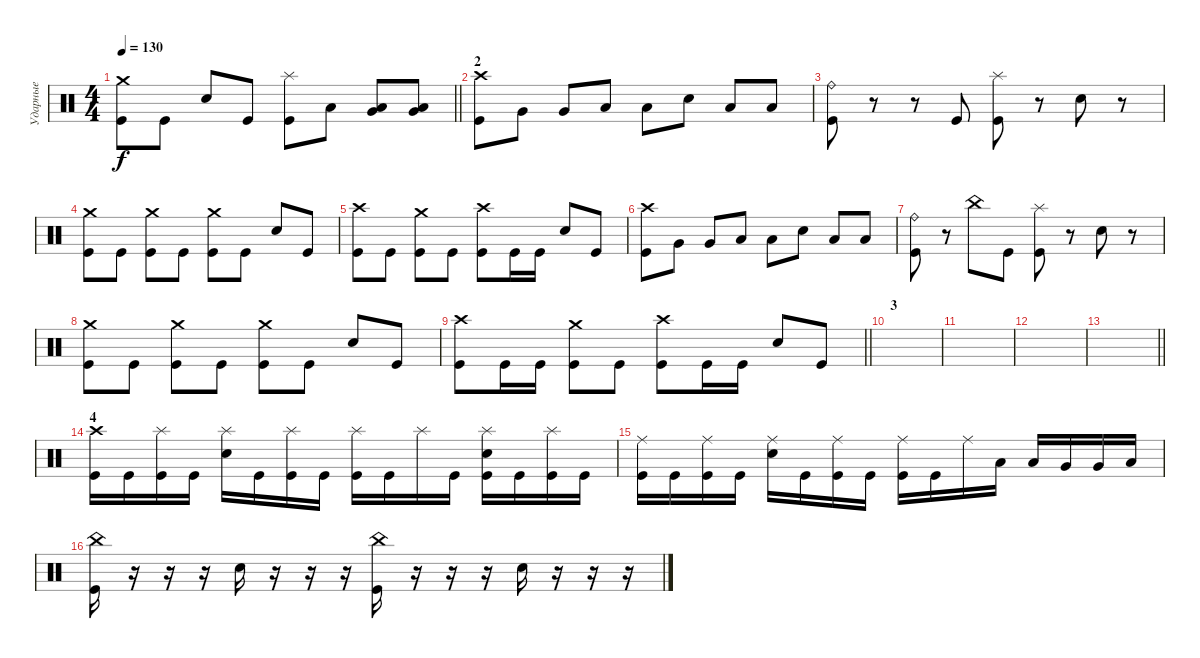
\track ("Ударные" "Ударные") {instrument percussion}
\staff {score}
\articulation defaults
\ts (4 4)
\tempo 130
\clef neutral
\barLineRight lightlight
\ks c
("Crash medium (hit)" "Kick (hit)").8{dy f} "Kick (hit)".8 "Electric Snare (hit)".8 "Kick (hit)".8 ("Splash (hit)" "Kick (hit)").8 "Low Tom (hit)".8 ("Very Low Tom (hit)" "Low Floor Tom (hit)").8 ("Very Low Tom (hit)" "Low Floor Tom (hit)").8 |
\section ("" "2")
("Crash high (hit)" "Kick (hit)").8 "Very Low Tom (hit)".8 "Very Low Tom (hit)".8 "Low Tom (hit)".8 "Low Tom (hit)".8 "Electric Snare (hit)".8 "Low Tom (hit)".8 "Low Tom (hit)".8 |
("Ride (bell)" "Kick (hit)").8 r.8 r.8 "Kick (hit)".8 ("Splash (hit)" "Kick (hit)").8 r.8 "Electric Snare (hit)".8 r.8 |
("Crash medium (hit)" "Kick (hit)").8 "Kick (hit)".8 ("Crash medium (hit)" "Kick (hit)").8 "Kick (hit)".8 ("Crash medium (hit)" "Kick (hit)").8 "Kick (hit)".8 "Electric Snare (hit)".8 "Kick (hit)".8 |
("Crash high (hit)" "Kick (hit)").8 "Kick (hit)".8 ("Crash medium (hit)" "Kick (hit)").8 "Kick (hit)".8 ("Crash high (hit)" "Kick (hit)").8 "Kick (hit)".16 "Kick (hit)".16 "Electric Snare (hit)".8 "Kick (hit)".8 |
("Crash high (hit)" "Kick (hit)").8 "Very Low Tom (hit)".8 "Very Low Tom (hit)".8 "Low Tom (hit)".8 "Low Tom (hit)".8 "Electric Snare (hit)".8 "Low Tom (hit)".8 "Low Tom (hit)".8 |
("Ride (bell)" "Kick (hit)").8 r.8 "China (hit)".8 "Kick (hit)".8 ("Splash (hit)" "Kick (hit)").8 r.8 "Electric Snare (hit)".8 r.8 |
("Crash medium (hit)" "Kick (hit)").8 "Kick (hit)".8 ("Crash medium (hit)" "Kick (hit)").8 "Kick (hit)".8 ("Crash medium (hit)" "Kick (hit)").8 "Kick (hit)".8 "Electric Snare (hit)".8 "Kick (hit)".8 |
\barLineRight lightlight
("Crash high (hit)" "Kick (hit)").8 "Kick (hit)".16 "Kick (hit)".16 ("Crash medium (hit)" "Kick (hit)").8 "Kick (hit)".8 ("Crash high (hit)" "Kick (hit)").8 "Kick (hit)".16 "Kick (hit)".16 "Electric Snare (hit)".8 "Kick (hit)".8 |
\section ("" "3")
|
|
|
\barLineRight lightlight
|
\section ("" "4")
("Crash high (hit)" "Kick (hit)").16 "Kick (hit)".16 ("Splash (hit)" "Kick (hit)").16 "Kick (hit)".16 ("Splash (hit)" "Electric Snare (hit)").16 "Kick (hit)".16 ("Splash (hit)" "Kick (hit)").16 "Kick (hit)".16 ("Splash (hit)" "Kick (hit)").16 "Kick (hit)".16 "Splash (hit)".16 "Kick (hit)".16 ("Splash (hit)" "Electric Snare (hit)" "Kick (hit)").16 "Kick (hit)".16 ("Splash (hit)" "Kick (hit)").16 "Kick (hit)".16 |
("Ride (middle)" "Kick (hit)").16 "Kick (hit)".16 ("Ride (middle)" "Kick (hit)").16 "Kick (hit)".16 ("Ride (middle)" "Electric Snare (hit)").16 "Kick (hit)".16 ("Ride (middle)" "Kick (hit)").16 "Kick (hit)".16 ("Ride (middle)" "Kick (hit)").16 "Kick (hit)".16 "Ride (middle)".16 "Low Tom (hit)".16 "Low Tom (hit)".16 "Very Low Tom (hit)".16 "Very Low Tom (hit)".16 "Low Tom (hit)".16 |
("China (hit)" "Kick (hit)").16 r.16 r.16 r.16 "Electric Snare (hit)".16 r.16 r.16 r.16 ("China (hit)" "Kick (hit)").16 r.16 r.16 r.16 "Electric Snare (hit)".16 r.16 r.16 r.16
